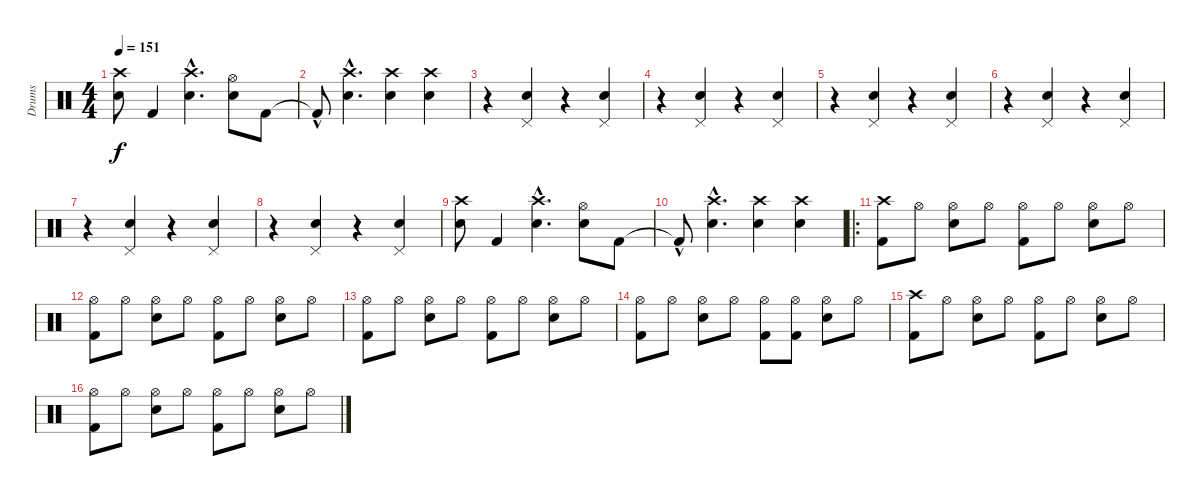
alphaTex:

\track ("Drums" "Drums") {instrument percussion}
\staff {score}
\articulation defaults
\ts (4 4)
\tempo 151
\clef neutral
\ks c
("Crash high (hit)" "Electric Snare (hit)").8{dy f} "Kick (hit) 2".4 ("Crash high (hit)"{hac} "Electric Snare (hit)"{hac}).4{d} ("Hi-Hat (open)" "Electric Snare (hit)").8 "Kick (hit) 2".8 |
"Kick (hit) 2"{hac t}.8 ("Crash high (hit)"{hac} "Electric Snare (hit)"{hac}).4{d} ("Crash high (hit)" "Electric Snare (hit)").4 ("Crash high (hit)" "Electric Snare (hit)").4 |
r.4 ("Pedal Hi-Hat (hit)" "Electric Snare (hit)").4 r.4 ("Pedal Hi-Hat (hit)" "Electric Snare (hit)").4 |
r.4 ("Pedal Hi-Hat (hit)" "Electric Snare (hit)").4 r.4 ("Pedal Hi-Hat (hit)" "Electric Snare (hit)").4 |
r.4 ("Pedal Hi-Hat (hit)" "Electric Snare (hit)").4 r.4 ("Pedal Hi-Hat (hit)" "Electric Snare (hit)").4 |
r.4 ("Pedal Hi-Hat (hit)" "Electric Snare (hit)").4 r.4 ("Pedal Hi-Hat (hit)" "Electric Snare (hit)").4 |
r.4 ("Pedal Hi-Hat (hit)" "Electric Snare (hit)").4 r.4 ("Pedal Hi-Hat (hit)" "Electric Snare (hit)").4 |
r.4 ("Pedal Hi-Hat (hit)" "Electric Snare (hit)").4 r.4 ("Pedal Hi-Hat (hit)" "Electric Snare (hit)").4 |
("Crash high (hit)" "Electric Snare (hit)").8 "Kick (hit) 2".4 ("Crash high (hit)"{hac} "Electric Snare (hit)"{hac}).4{d} ("Hi-Hat (open)" "Electric Snare (hit)").8 "Kick (hit) 2".8 |
"Kick (hit) 2"{hac t}.8 ("Crash high (hit)"{hac} "Electric Snare (hit)"{hac}).4{d} ("Crash high (hit)" "Electric Snare (hit)").4 ("Crash high (hit)" "Electric Snare (hit)").4 |
\ro
("Crash high (hit)" "Kick (hit) 2").8 "Hi-Hat (open)".8 ("Hi-Hat (open)" "Electric Snare (hit)").8 "Hi-Hat (open)".8 ("Hi-Hat (open)" "Kick (hit) 2").8 "Hi-Hat (open)".8 ("Hi-Hat (open)" "Electric Snare (hit)").8 "Hi-Hat (open)".8 |
("Hi-Hat (open)" "Kick (hit) 2").8 "Hi-Hat (open)".8 ("Hi-Hat (open)" "Electric Snare (hit)").8 "Hi-Hat (open)".8 ("Hi-Hat (open)" "Kick (hit) 2").8 "Hi-Hat (open)".8 ("Hi-Hat (open)" "Electric Snare (hit)").8 "Hi-Hat (open)".8 |
("Hi-Hat (open)" "Kick (hit) 2").8 "Hi-Hat (open)".8 ("Hi-Hat (open)" "Electric Snare (hit)").8 "Hi-Hat (open)".8 ("Hi-Hat (open)" "Kick (hit) 2").8 "Hi-Hat (open)".8 ("Hi-Hat (open)" "Electric Snare (hit)").8 "Hi-Hat (open)".8 |
("Hi-Hat (open)" "Kick (hit) 2").8 "Hi-Hat (open)".8 ("Hi-Hat (open)" "Electric Snare (hit)").8 "Hi-Hat (open)".8 ("Hi-Hat (open)" "Kick (hit) 2").8 ("Hi-Hat (open)" "Kick (hit) 2").8 ("Hi-Hat (open)" "Electric Snare (hit)").8 "Hi-Hat (open)".8 |
("Crash high (hit)" "Kick (hit) 2").8 "Hi-Hat (open)".8 ("Hi-Hat (open)" "Electric Snare (hit)").8 "Hi-Hat (open)".8 ("Hi-Hat (open)" "Kick (hit) 2").8 "Hi-Hat (open)".8 ("Hi-Hat (open)" "Electric Snare (hit)").8 "Hi-Hat (open)".8 |
("Hi-Hat (open)" "Kick (hit) 2").8 "Hi-Hat (open)".8 ("Hi-Hat (open)" "Electric Snare (hit)").8 "Hi-Hat (open)".8 ("Hi-Hat (open)" "Kick (hit) 2").8 "Hi-Hat (open)".8 ("Hi-Hat (open)" "Electric Snare (hit)").8 "Hi-Hat (open)".8
